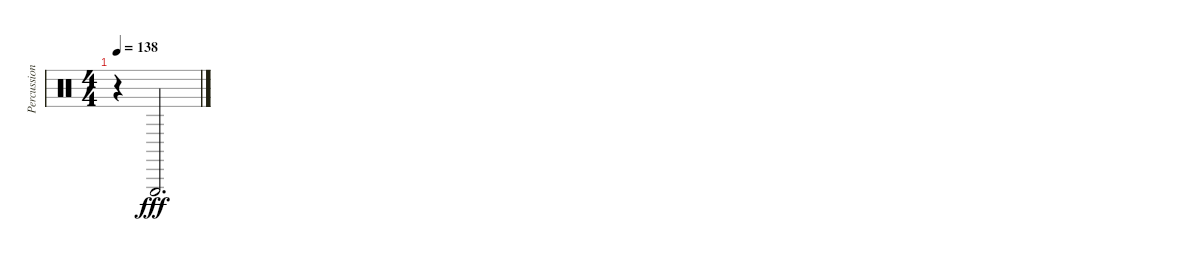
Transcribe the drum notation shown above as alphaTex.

\track ("Percussion" "Percussion") {instrument percussion}
\staff {score}
\articulation defaults
\ts (4 4)
\tempo 138
\clef neutral
\ks c
r.4{dy f} "Triangle (hit)".2{d dy fff}
